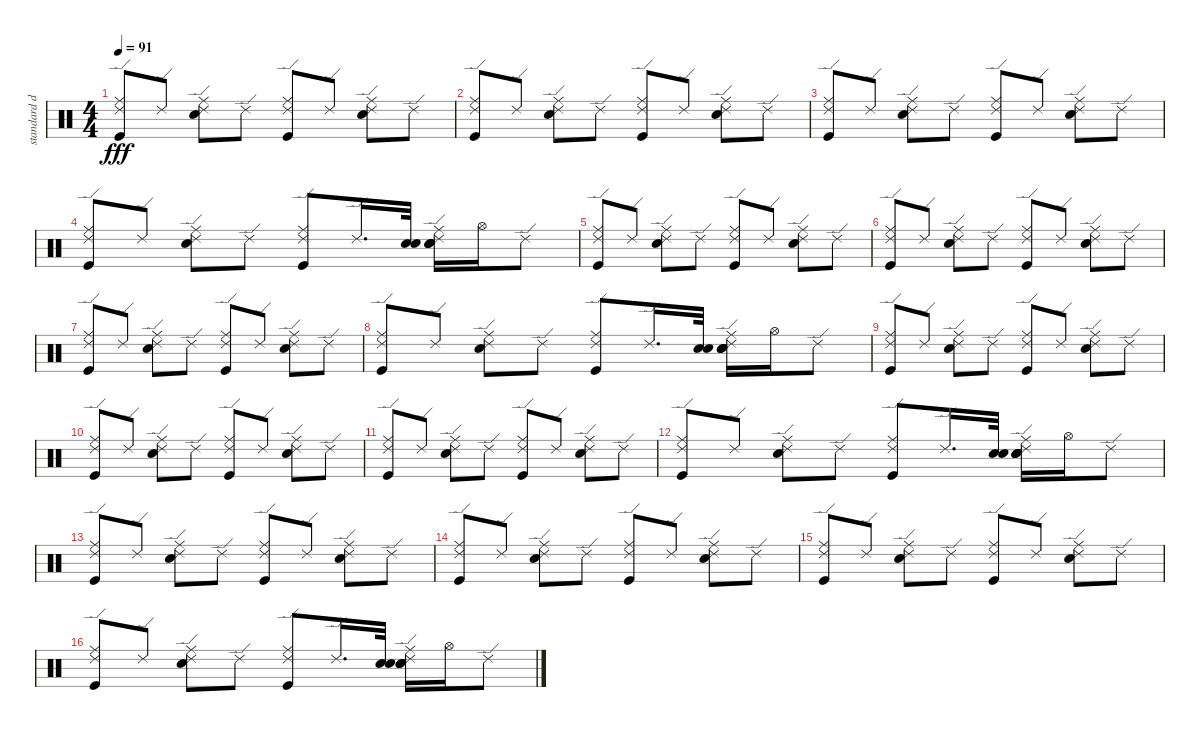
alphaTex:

\track ("standard drums" "standard d") {instrument percussion}
\staff {score}
\articulation defaults
\ts (4 4)
\tempo 91
\clef neutral
\ks c
("Ride (edge) 2" "Ride (middle)" "Kick (hit)").8{dy fff} "Ride (edge) 2".8 ("Ride (edge) 2" "Ride (middle)" "Snare (hit) 2").8 "Ride (edge) 2".8 ("Ride (edge) 2" "Ride (middle)" "Kick (hit)").8 "Ride (edge) 2".8 ("Ride (edge) 2" "Ride (middle)" "Snare (hit) 2").8 "Ride (edge) 2".8 |
("Ride (middle)" "Ride (edge) 2" "Kick (hit)").8 "Ride (edge) 2".8 ("Ride (edge) 2" "Ride (middle)" "Snare (hit) 2").8 "Ride (edge) 2".8 ("Ride (edge) 2" "Ride (middle)" "Kick (hit)").8 "Ride (edge) 2".8 ("Ride (middle)" "Ride (edge) 2" "Snare (hit) 2").8 "Ride (edge) 2".8 |
("Ride (edge) 2" "Ride (middle)" "Kick (hit)").8 "Ride (edge) 2".8 ("Ride (edge) 2" "Ride (middle)" "Snare (hit) 2").8 "Ride (edge) 2".8 ("Ride (edge) 2" "Ride (middle)" "Kick (hit)").8 "Ride (edge) 2".8 ("Ride (edge) 2" "Ride (middle)" "Snare (hit) 2").8 "Ride (edge) 2".8 |
("Ride (middle)" "Ride (edge) 2" "Kick (hit)").8 "Ride (edge) 2".8 ("Ride (edge) 2" "Ride (middle)" "Snare (hit) 2").8 "Ride (edge) 2".8 ("Ride (edge) 2" "Ride (middle)" "Kick (hit)").8 "Ride (edge) 2".16{d} ("Electric Snare (hit)" "Snare (hit) 2").32 ("Ride (middle)" "Ride (edge) 2" "Snare (hit) 2" "Snare (hit) 2" "Electric Snare (hit)").16 "Hi-Hat (open)".16 "Ride (edge) 2".8 |
("Ride (edge) 2" "Ride (middle)" "Kick (hit)").8 "Ride (edge) 2".8 ("Ride (edge) 2" "Ride (middle)" "Snare (hit) 2").8 "Ride (edge) 2".8 ("Ride (edge) 2" "Ride (middle)" "Kick (hit)").8 "Ride (edge) 2".8 ("Ride (edge) 2" "Ride (middle)" "Snare (hit) 2").8 "Ride (edge) 2".8 |
("Ride (middle)" "Ride (edge) 2" "Kick (hit)").8 "Ride (edge) 2".8 ("Ride (edge) 2" "Ride (middle)" "Snare (hit) 2").8 "Ride (edge) 2".8 ("Ride (edge) 2" "Ride (middle)" "Kick (hit)").8 "Ride (edge) 2".8 ("Ride (middle)" "Ride (edge) 2" "Snare (hit) 2").8 "Ride (edge) 2".8 |
("Ride (edge) 2" "Ride (middle)" "Kick (hit)").8 "Ride (edge) 2".8 ("Ride (edge) 2" "Ride (middle)" "Snare (hit) 2").8 "Ride (edge) 2".8 ("Ride (edge) 2" "Ride (middle)" "Kick (hit)").8 "Ride (edge) 2".8 ("Ride (edge) 2" "Ride (middle)" "Snare (hit) 2").8 "Ride (edge) 2".8 |
("Ride (middle)" "Ride (edge) 2" "Kick (hit)").8 "Ride (edge) 2".8 ("Ride (edge) 2" "Ride (middle)" "Snare (hit) 2").8 "Ride (edge) 2".8 ("Ride (edge) 2" "Ride (middle)" "Kick (hit)").8 "Ride (edge) 2".16{d} ("Electric Snare (hit)" "Snare (hit) 2").32 ("Ride (middle)" "Ride (edge) 2" "Snare (hit) 2" "Snare (hit) 2" "Electric Snare (hit)").16 "Hi-Hat (open)".16 "Ride (edge) 2".8 |
("Ride (edge) 2" "Ride (middle)" "Kick (hit)").8 "Ride (edge) 2".8 ("Ride (edge) 2" "Ride (middle)" "Snare (hit) 2").8 "Ride (edge) 2".8 ("Ride (edge) 2" "Ride (middle)" "Kick (hit)").8 "Ride (edge) 2".8 ("Ride (edge) 2" "Ride (middle)" "Snare (hit) 2").8 "Ride (edge) 2".8 |
("Ride (middle)" "Ride (edge) 2" "Kick (hit)").8 "Ride (edge) 2".8 ("Ride (edge) 2" "Ride (middle)" "Snare (hit) 2").8 "Ride (edge) 2".8 ("Ride (edge) 2" "Ride (middle)" "Kick (hit)").8 "Ride (edge) 2".8 ("Ride (middle)" "Ride (edge) 2" "Snare (hit) 2").8 "Ride (edge) 2".8 |
("Ride (edge) 2" "Ride (middle)" "Kick (hit)").8 "Ride (edge) 2".8 ("Ride (edge) 2" "Ride (middle)" "Snare (hit) 2").8 "Ride (edge) 2".8 ("Ride (edge) 2" "Ride (middle)" "Kick (hit)").8 "Ride (edge) 2".8 ("Ride (edge) 2" "Ride (middle)" "Snare (hit) 2").8 "Ride (edge) 2".8 |
("Ride (middle)" "Ride (edge) 2" "Kick (hit)").8 "Ride (edge) 2".8 ("Ride (edge) 2" "Ride (middle)" "Snare (hit) 2").8 "Ride (edge) 2".8 ("Ride (edge) 2" "Ride (middle)" "Kick (hit)").8 "Ride (edge) 2".16{d} ("Electric Snare (hit)" "Snare (hit) 2").32 ("Ride (middle)" "Ride (edge) 2" "Snare (hit) 2" "Snare (hit) 2" "Electric Snare (hit)").16 "Hi-Hat (open)".16 "Ride (edge) 2".8 |
("Ride (edge) 2" "Ride (middle)" "Kick (hit)").8 "Ride (edge) 2".8 ("Ride (edge) 2" "Ride (middle)" "Snare (hit) 2").8 "Ride (edge) 2".8 ("Ride (edge) 2" "Ride (middle)" "Kick (hit)").8 "Ride (edge) 2".8 ("Ride (edge) 2" "Ride (middle)" "Snare (hit) 2").8 "Ride (edge) 2".8 |
("Ride (middle)" "Ride (edge) 2" "Kick (hit)").8 "Ride (edge) 2".8 ("Ride (edge) 2" "Ride (middle)" "Snare (hit) 2").8 "Ride (edge) 2".8 ("Ride (edge) 2" "Ride (middle)" "Kick (hit)").8 "Ride (edge) 2".8 ("Ride (middle)" "Ride (edge) 2" "Snare (hit) 2").8 "Ride (edge) 2".8 |
("Ride (edge) 2" "Ride (middle)" "Kick (hit)").8 "Ride (edge) 2".8 ("Ride (edge) 2" "Ride (middle)" "Snare (hit) 2").8 "Ride (edge) 2".8 ("Ride (edge) 2" "Ride (middle)" "Kick (hit)").8 "Ride (edge) 2".8 ("Ride (edge) 2" "Ride (middle)" "Snare (hit) 2").8 "Ride (edge) 2".8 |
("Ride (middle)" "Ride (edge) 2" "Kick (hit)").8 "Ride (edge) 2".8 ("Ride (edge) 2" "Ride (middle)" "Snare (hit) 2").8 "Ride (edge) 2".8 ("Ride (edge) 2" "Ride (middle)" "Kick (hit)").8 "Ride (edge) 2".16{d} ("Electric Snare (hit)" "Snare (hit) 2").32 ("Ride (middle)" "Ride (edge) 2" "Snare (hit) 2" "Snare (hit) 2" "Electric Snare (hit)").16 "Hi-Hat (open)".16 "Ride (edge) 2".8
